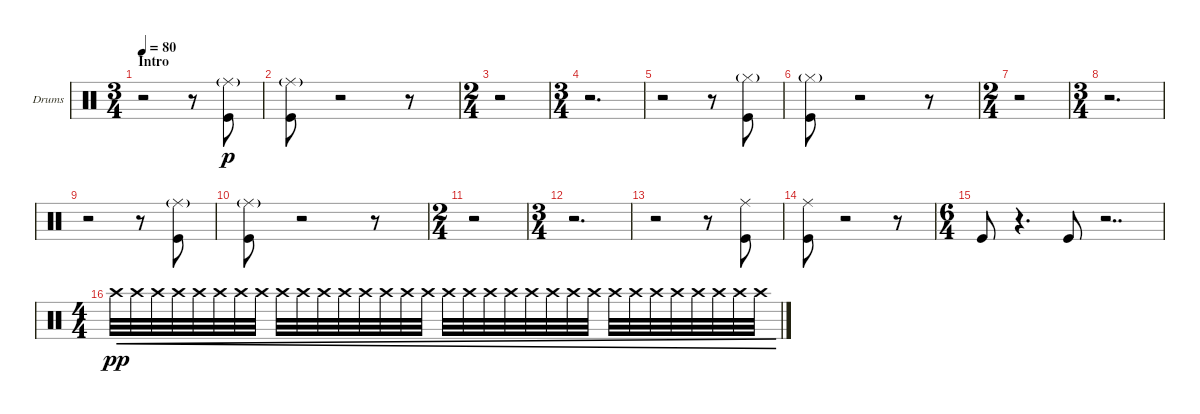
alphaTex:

\bracketExtendMode groupsimilarinstruments
\firstSystemTrackNameOrientation horizontal
\otherSystemsTrackNameOrientation horizontal
\track ("Drumkit" "Drums") {instrument percussion}
\staff {score}
\articulation defaults
\ts (3 4)
\section ("" "Intro")
\tempo 80
\clef neutral
\ks c
r.2{dy p} r.8 ("Kick (hit)" "Ride (middle)"{g}).8 |
("Kick (hit)" "Ride (middle)"{g}).8 r.2 r.8 |
\ts (2 4)
r.2 |
\ts (3 4)
r.2{d} |
r.2 r.8 ("Kick (hit)" "Hi-Hat (closed)"{g}).8 |
("Kick (hit)" "Hi-Hat (closed)"{g}).8 r.2 r.8 |
\ts (2 4)
r.2 |
\ts (3 4)
r.2{d} |
r.2 r.8 ("Kick (hit)" "Ride (middle)"{g}).8 |
("Kick (hit)" "Ride (middle)"{g}).8 r.2 r.8 |
\ts (2 4)
r.2 |
\ts (3 4)
r.2{d} |
r.2 r.8 ("Kick (hit)" "Ride (middle)").8 |
("Kick (hit)" "Ride (middle)").8 r.2 r.8 |
\ts (6 4)
"Kick (hit)".8 r.4{d} "Kick (hit)".8 r.2{dd} |
\ts (4 4)
"Crash high (hit)".32{cre dy pp} "Crash high (hit)".32{cre} "Crash high (hit)".32{cre} "Crash high (hit)".32{cre} "Crash high (hit)".32{cre} "Crash high (hit)".32{cre} "Crash high (hit)".32{cre} "Crash high (hit)".32{cre} "Crash high (hit)".32{cre} "Crash high (hit)".32{cre} "Crash high (hit)".32{cre} "Crash high (hit)".32{cre} "Crash high (hit)".32{cre} "Crash high (hit)".32{cre} "Crash high (hit)".32{cre} "Crash high (hit)".32{cre} "Crash high (hit)".32{cre} "Crash high (hit)".32{cre} "Crash high (hit)".32{cre} "Crash high (hit)".32{cre} "Crash high (hit)".32{cre} "Crash high (hit)".32{cre} "Crash high (hit)".32{cre} "Crash high (hit)".32{cre} "Crash high (hit)".32{cre} "Crash high (hit)".32{cre} "Crash high (hit)".32{cre} "Crash high (hit)".32{cre} "Crash high (hit)".32{cre} "Crash high (hit)".32{cre} "Crash high (hit)".32{cre} "Crash high (hit)".32{cre}
